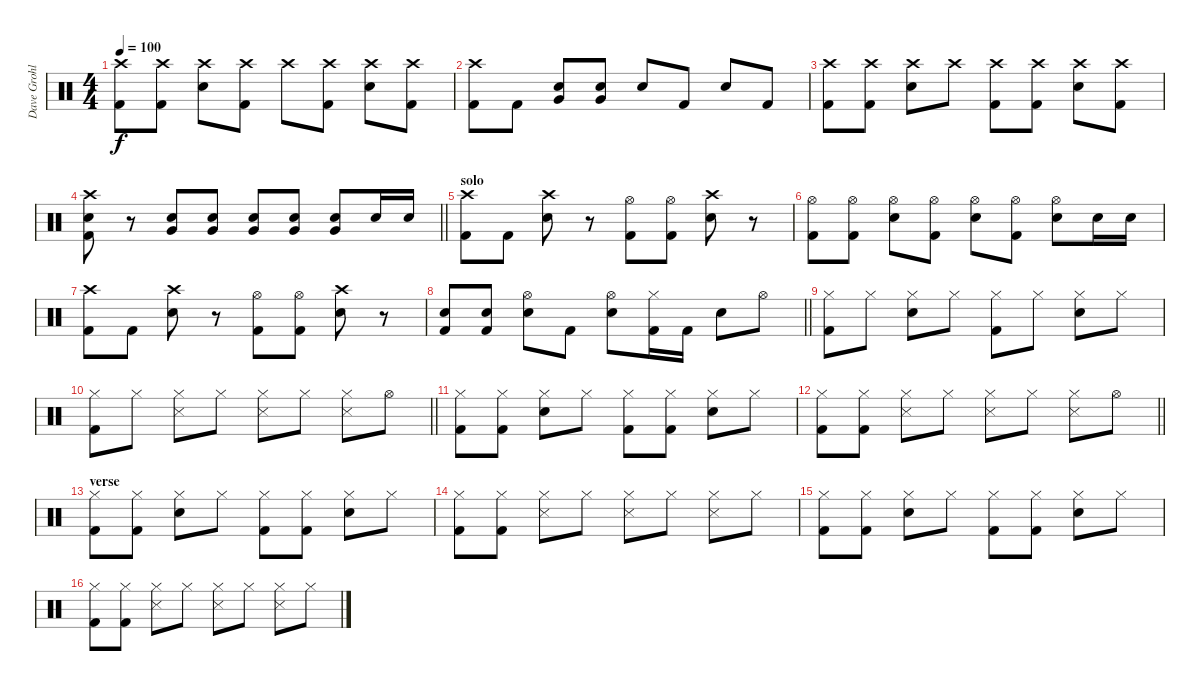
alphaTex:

\track ("Dave Grohl" "Dave Grohl") {instrument percussion}
\staff {score}
\articulation defaults
\ts (4 4)
\tempo 100
\clef neutral
\ks c
("Crash high (hit)" "Kick (hit) 2").8{dy f} ("Crash high (hit)" "Kick (hit) 2").8 ("Crash high (hit)" "Snare (hit) 2").8 ("Crash high (hit)" "Kick (hit) 2").8 "Crash high (hit)".8 ("Crash high (hit)" "Kick (hit) 2").8 ("Crash high (hit)" "Snare (hit) 2").8 ("Crash high (hit)" "Kick (hit) 2").8 |
("Crash high (hit)" "Kick (hit) 2").8 "Kick (hit) 2".8 ("Snare (hit) 2" "Very Low Tom (hit)").8 ("Snare (hit) 2" "Very Low Tom (hit)").8 "Snare (hit) 2".8 "Kick (hit) 2".8 "Snare (hit) 2".8 "Kick (hit) 2".8 |
("Crash high (hit)" "Kick (hit) 2").8 ("Crash high (hit)" "Kick (hit) 2").8 ("Crash high (hit)" "Snare (hit) 2").8 "Crash high (hit)".8 ("Crash high (hit)" "Kick (hit) 2").8 ("Crash high (hit)" "Kick (hit) 2").8 ("Crash high (hit)" "Snare (hit) 2").8 ("Crash high (hit)" "Kick (hit) 2").8 |
\barLineRight lightlight
("Crash high (hit)" "Snare (hit) 2" "Kick (hit) 2").8 r.8 ("Snare (hit) 2" "Very Low Tom (hit)").8 ("Snare (hit) 2" "Very Low Tom (hit)").8 ("Snare (hit) 2" "Very Low Tom (hit)").8 ("Snare (hit) 2" "Very Low Tom (hit)").8 ("Snare (hit) 2" "Very Low Tom (hit)").8 "Snare (hit) 2".16 "Snare (hit) 2".16 |
\section ("" "solo")
("Crash high (hit)" "Kick (hit) 2").8 "Kick (hit) 2".8 ("Crash high (hit)" "Snare (hit) 2").8 r.8 ("Hi-Hat (open)" "Kick (hit) 2").8 ("Hi-Hat (open)" "Kick (hit) 2").8 ("Crash high (hit)" "Snare (hit) 2").8 r.8 |
("Hi-Hat (open)" "Kick (hit) 2").8 ("Hi-Hat (open)" "Kick (hit) 2").8 ("Hi-Hat (open)" "Snare (hit) 2").8 ("Hi-Hat (open)" "Kick (hit) 2").8 ("Hi-Hat (open)" "Snare (hit) 2").8 ("Hi-Hat (open)" "Kick (hit) 2").8 ("Hi-Hat (open)" "Snare (hit) 2").8 "Snare (hit) 2".16 "Snare (hit) 2".16 |
("Crash high (hit)" "Kick (hit) 2").8 "Kick (hit) 2".8 ("Crash high (hit)" "Snare (hit) 2").8 r.8 ("Hi-Hat (open)" "Kick (hit) 2").8 ("Hi-Hat (open)" "Kick (hit) 2").8 ("Crash high (hit)" "Snare (hit) 2").8 r.8 |
\barLineRight lightlight
("Snare (hit) 2" "Kick (hit) 2").8 ("Snare (hit) 2" "Kick (hit) 2").8 ("Hi-Hat (open)" "Snare (hit) 2").8 "Kick (hit) 2".8 ("Hi-Hat (open)" "Snare (hit) 2").8 ("Hi-Hat (closed)" "Kick (hit) 2").16 "Kick (hit) 2".16 "Snare (hit) 2".8 "Hi-Hat (open)".8 |
("Hi-Hat (closed)" "Kick (hit) 2").8 "Hi-Hat (closed)".8 ("Hi-Hat (closed)" "Snare (hit) 2").8 "Hi-Hat (closed)".8 ("Hi-Hat (closed)" "Kick (hit) 2").8 "Hi-Hat (closed)".8 ("Hi-Hat (closed)" "Snare (hit) 2").8 "Hi-Hat (closed)".8 |
\barLineRight lightlight
("Hi-Hat (closed)" "Kick (hit) 2").8 "Hi-Hat (closed)".8 ("Hi-Hat (closed)" "Snare (side stick) 3").8 "Hi-Hat (closed)".8 ("Hi-Hat (closed)" "Snare (side stick) 3").8 "Hi-Hat (closed)".8 ("Hi-Hat (closed)" "Snare (side stick) 3").8 "Hi-Hat (open)".8 |
\section ("" "")
("Hi-Hat (closed)" "Kick (hit) 2").8 ("Hi-Hat (closed)" "Kick (hit) 2").8 ("Hi-Hat (closed)" "Snare (hit) 2").8 "Hi-Hat (closed)".8 ("Hi-Hat (closed)" "Kick (hit) 2").8 ("Hi-Hat (closed)" "Kick (hit) 2").8 ("Hi-Hat (closed)" "Snare (hit) 2").8 "Hi-Hat (closed)".8 |
\barLineRight lightlight
("Hi-Hat (closed)" "Kick (hit) 2").8 ("Hi-Hat (closed)" "Kick (hit) 2").8 ("Hi-Hat (closed)" "Snare (side stick) 3").8 "Hi-Hat (closed)".8 ("Hi-Hat (closed)" "Snare (side stick) 3").8 "Hi-Hat (closed)".8 ("Hi-Hat (closed)" "Snare (side stick) 3").8 "Hi-Hat (open)".8 |
\section ("" "verse")
("Hi-Hat (closed)" "Kick (hit) 2").8 ("Hi-Hat (closed)" "Kick (hit) 2").8 ("Hi-Hat (closed)" "Snare (hit) 2").8 "Hi-Hat (closed)".8 ("Hi-Hat (closed)" "Kick (hit) 2").8 ("Hi-Hat (closed)" "Kick (hit) 2").8 ("Hi-Hat (closed)" "Snare (hit) 2").8 "Hi-Hat (closed)".8 |
("Hi-Hat (closed)" "Kick (hit) 2").8 ("Hi-Hat (closed)" "Kick (hit) 2").8 ("Hi-Hat (closed)" "Snare (side stick) 3").8 "Hi-Hat (closed)".8 ("Hi-Hat (closed)" "Snare (side stick) 3").8 "Hi-Hat (closed)".8 ("Hi-Hat (closed)" "Snare (side stick) 3").8 "Hi-Hat (closed)".8 |
("Hi-Hat (closed)" "Kick (hit) 2").8 ("Hi-Hat (closed)" "Kick (hit) 2").8 ("Hi-Hat (closed)" "Snare (hit) 2").8 "Hi-Hat (closed)".8 ("Hi-Hat (closed)" "Kick (hit) 2").8 ("Hi-Hat (closed)" "Kick (hit) 2").8 ("Hi-Hat (closed)" "Snare (hit) 2").8 "Hi-Hat (closed)".8 |
("Hi-Hat (closed)" "Kick (hit) 2").8 ("Hi-Hat (closed)" "Kick (hit) 2").8 ("Hi-Hat (closed)" "Snare (side stick) 3").8 "Hi-Hat (closed)".8 ("Hi-Hat (closed)" "Snare (side stick) 3").8 "Hi-Hat (closed)".8 ("Hi-Hat (closed)" "Snare (side stick) 3").8 "Hi-Hat (closed)".8
